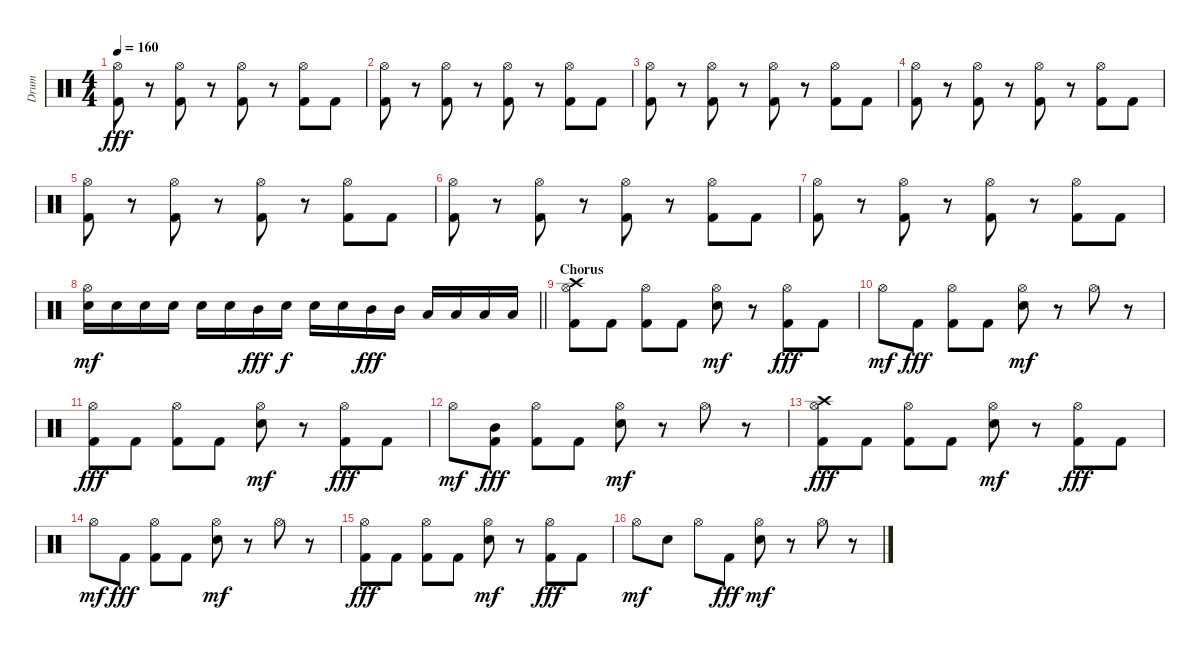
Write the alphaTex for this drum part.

\track ("Drum" "Drum") {instrument percussion}
\staff {score}
\articulation defaults
\ts (4 4)
\tempo 160
\clef neutral
\ks c
("Hi-Hat (open)" "Kick (hit) 2").8{dy fff} r.8 ("Hi-Hat (open)" "Kick (hit) 2").8 r.8 ("Hi-Hat (open)" "Kick (hit) 2").8 r.8 ("Hi-Hat (open)" "Kick (hit) 2").8 "Kick (hit) 2".8 |
("Hi-Hat (open)" "Kick (hit) 2").8 r.8 ("Hi-Hat (open)" "Kick (hit) 2").8 r.8 ("Hi-Hat (open)" "Kick (hit) 2").8 r.8 ("Hi-Hat (open)" "Kick (hit) 2").8 "Kick (hit) 2".8 |
("Hi-Hat (open)" "Kick (hit) 2").8 r.8 ("Hi-Hat (open)" "Kick (hit) 2").8 r.8 ("Hi-Hat (open)" "Kick (hit) 2").8 r.8 ("Hi-Hat (open)" "Kick (hit) 2").8 "Kick (hit) 2".8 |
("Hi-Hat (open)" "Kick (hit) 2").8 r.8 ("Hi-Hat (open)" "Kick (hit) 2").8 r.8 ("Hi-Hat (open)" "Kick (hit) 2").8 r.8 ("Hi-Hat (open)" "Kick (hit) 2").8 "Kick (hit) 2".8 |
("Hi-Hat (open)" "Kick (hit) 2").8 r.8 ("Hi-Hat (open)" "Kick (hit) 2").8 r.8 ("Hi-Hat (open)" "Kick (hit) 2").8 r.8 ("Hi-Hat (open)" "Kick (hit) 2").8 "Kick (hit) 2".8 |
("Hi-Hat (open)" "Kick (hit) 2").8 r.8 ("Hi-Hat (open)" "Kick (hit) 2").8 r.8 ("Hi-Hat (open)" "Kick (hit) 2").8 r.8 ("Hi-Hat (open)" "Kick (hit) 2").8 "Kick (hit) 2".8 |
("Hi-Hat (open)" "Kick (hit) 2").8 r.8 ("Hi-Hat (open)" "Kick (hit) 2").8 r.8 ("Hi-Hat (open)" "Kick (hit) 2").8 r.8 ("Hi-Hat (open)" "Kick (hit) 2").8 "Kick (hit) 2".8 |
\barLineRight lightlight
("Hi-Hat (open)" "Electric Snare (hit)").16{dy mf} "Electric Snare (hit)".16 "Electric Snare (hit)".16 "Electric Snare (hit)".16 "Electric Snare (hit)".16 "Electric Snare (hit)".16 "Mid Tom (hit)".16{dy fff} "Electric Snare (hit)".16{dy f} "Electric Snare (hit)".16 "Electric Snare (hit)".16 "Mid Tom (hit)".16{dy fff} "Mid Tom (hit)".16 "Low Tom (hit)".16 "Low Tom (hit)".16 "Low Tom (hit)".16 "Low Tom (hit)".16 |
\section ("" "Chorus")
("Hi-Hat (open)" "Kick (hit) 2" "Crash high (hit)").8 "Kick (hit) 2".8 ("Hi-Hat (open)" "Kick (hit) 2").8 "Kick (hit) 2".8 ("Hi-Hat (open)" "Electric Snare (hit)").8{dy mf} r.8 ("Hi-Hat (open)" "Kick (hit) 2").8{dy fff} "Kick (hit) 2".8 |
"Hi-Hat (open)".8{dy mf} "Kick (hit) 2".8{dy fff} ("Hi-Hat (open)" "Kick (hit) 2").8 "Kick (hit) 2".8 ("Hi-Hat (open)" "Electric Snare (hit)").8{dy mf} r.8 "Hi-Hat (open)".8 r.8 |
("Hi-Hat (open)" "Kick (hit) 2").8{dy fff} "Kick (hit) 2".8 ("Hi-Hat (open)" "Kick (hit) 2").8 "Kick (hit) 2".8 ("Hi-Hat (open)" "Electric Snare (hit)").8{dy mf} r.8 ("Hi-Hat (open)" "Kick (hit) 2").8{dy fff} "Kick (hit) 2".8 |
"Hi-Hat (open)".8{dy mf} ("Mid Tom (hit)" "Kick (hit) 2").8{dy fff} ("Hi-Hat (open)" "Kick (hit) 2").8 "Kick (hit) 2".8 ("Hi-Hat (open)" "Electric Snare (hit)").8{dy mf} r.8 "Hi-Hat (open)".8 r.8 |
("Hi-Hat (open)" "Kick (hit) 2" "Crash high (hit)").8{dy fff} "Kick (hit) 2".8 ("Hi-Hat (open)" "Kick (hit) 2").8 "Kick (hit) 2".8 ("Hi-Hat (open)" "Electric Snare (hit)").8{dy mf} r.8 ("Hi-Hat (open)" "Kick (hit) 2").8{dy fff} "Kick (hit) 2".8 |
"Hi-Hat (open)".8{dy mf} "Kick (hit) 2".8{dy fff} ("Hi-Hat (open)" "Kick (hit) 2").8 "Kick (hit) 2".8 ("Hi-Hat (open)" "Electric Snare (hit)").8{dy mf} r.8 "Hi-Hat (open)".8 r.8 |
("Hi-Hat (open)" "Kick (hit) 2").8{dy fff} "Kick (hit) 2".8 ("Hi-Hat (open)" "Kick (hit) 2").8 "Kick (hit) 2".8 ("Hi-Hat (open)" "Electric Snare (hit)").8{dy mf} r.8 ("Hi-Hat (open)" "Kick (hit) 2").8{dy fff} "Kick (hit) 2".8 |
"Hi-Hat (open)".8{dy mf} "Electric Snare (hit)".8 "Hi-Hat (open)".8 "Kick (hit) 2".8{dy fff} ("Hi-Hat (open)" "Electric Snare (hit)").8{dy mf} r.8 "Hi-Hat (open)".8 r.8
